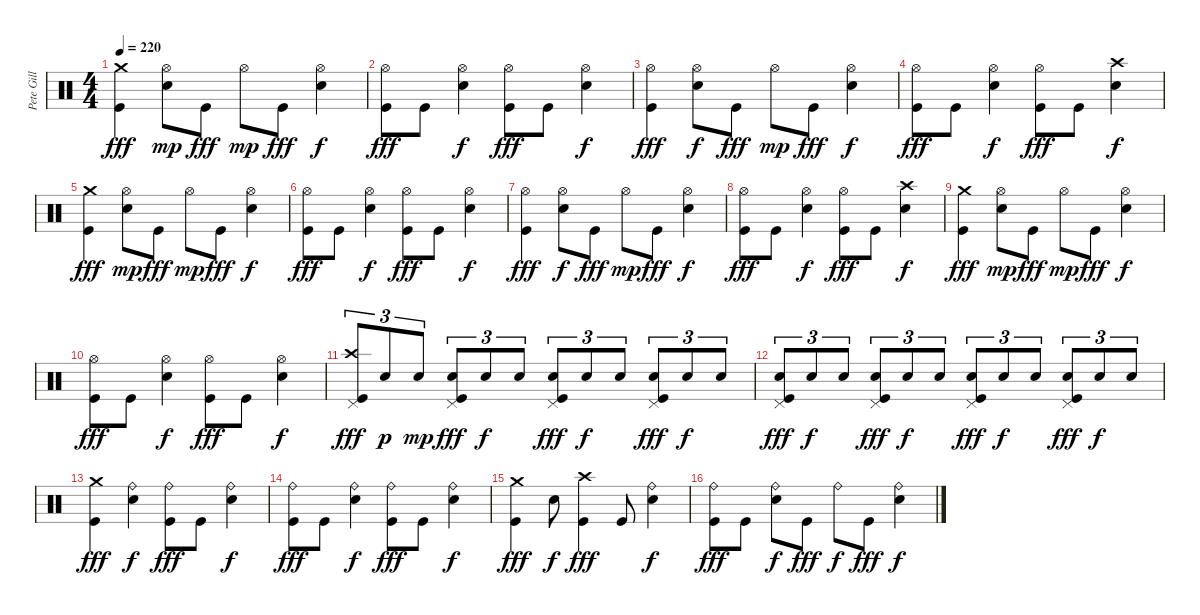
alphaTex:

\track ("Pete Gill" "Pete Gill") {instrument percussion}
\staff {score}
\articulation defaults
\ts (4 4)
\tempo 220
\clef neutral
\ks c
("Crash medium (hit)" "Kick (hit)").4{dy fff} ("Hi-Hat (open)" "Electric Snare (hit)").8{dy mp} "Kick (hit)".8{dy fff} "Hi-Hat (open)".8{dy mp} "Kick (hit)".8{dy fff} ("Hi-Hat (open)" "Electric Snare (hit)").4{dy f} |
("Hi-Hat (open)" "Kick (hit)").8{dy fff} "Kick (hit)".8 ("Hi-Hat (open)" "Electric Snare (hit)").4{dy f} ("Hi-Hat (open)" "Kick (hit)").8{dy fff} "Kick (hit)".8 ("Hi-Hat (open)" "Electric Snare (hit)").4{dy f} |
("Hi-Hat (open)" "Kick (hit)").4{dy fff} ("Hi-Hat (open)" "Electric Snare (hit)").8{dy f} "Kick (hit)".8{dy fff} "Hi-Hat (open)".8{dy mp} "Kick (hit)".8{dy fff} ("Hi-Hat (open)" "Electric Snare (hit)").4{dy f} |
("Hi-Hat (open)" "Kick (hit)").8{dy fff} "Kick (hit)".8 ("Hi-Hat (open)" "Electric Snare (hit)").4{dy f} ("Hi-Hat (open)" "Kick (hit)").8{dy fff} "Kick (hit)".8 ("Crash high (hit)" "Electric Snare (hit)").4{dy f} |
("Crash medium (hit)" "Kick (hit)").4{dy fff} ("Hi-Hat (open)" "Electric Snare (hit)").8{dy mp} "Kick (hit)".8{dy fff} "Hi-Hat (open)".8{dy mp} "Kick (hit)".8{dy fff} ("Hi-Hat (open)" "Electric Snare (hit)").4{dy f} |
("Hi-Hat (open)" "Kick (hit)").8{dy fff} "Kick (hit)".8 ("Hi-Hat (open)" "Electric Snare (hit)").4{dy f} ("Hi-Hat (open)" "Kick (hit)").8{dy fff} "Kick (hit)".8 ("Hi-Hat (open)" "Electric Snare (hit)").4{dy f} |
("Hi-Hat (open)" "Kick (hit)").4{dy fff} ("Hi-Hat (open)" "Electric Snare (hit)").8{dy f} "Kick (hit)".8{dy fff} "Hi-Hat (open)".8{dy mp} "Kick (hit)".8{dy fff} ("Hi-Hat (open)" "Electric Snare (hit)").4{dy f} |
("Hi-Hat (open)" "Kick (hit)").8{dy fff} "Kick (hit)".8 ("Hi-Hat (open)" "Electric Snare (hit)").4{dy f} ("Hi-Hat (open)" "Kick (hit)").8{dy fff} "Kick (hit)".8 ("Crash high (hit)" "Electric Snare (hit)").4{dy f} |
("Crash medium (hit)" "Kick (hit)").4{dy fff} ("Hi-Hat (open)" "Electric Snare (hit)").8{dy mp} "Kick (hit)".8{dy fff} "Hi-Hat (open)".8{dy mp} "Kick (hit)".8{dy fff} ("Hi-Hat (open)" "Electric Snare (hit)").4{dy f} |
("Hi-Hat (open)" "Kick (hit)").8{dy fff} "Kick (hit)".8 ("Hi-Hat (open)" "Electric Snare (hit)").4{dy f} ("Hi-Hat (open)" "Kick (hit)").8{dy fff} "Kick (hit)".8 ("Hi-Hat (open)" "Electric Snare (hit)").4{dy f} |
("Crash high (hit)" "Pedal Hi-Hat (hit)" "Kick (hit)").8{tu (3 2) dy fff} "Electric Snare (hit)".8{tu (3 2) dy p} "Electric Snare (hit)".8{tu (3 2) dy mp} ("Pedal Hi-Hat (hit)" "Electric Snare (hit)" "Kick (hit)").8{tu (3 2) dy fff} "Electric Snare (hit)".8{tu (3 2) dy f} "Electric Snare (hit)".8{tu (3 2)} ("Pedal Hi-Hat (hit)" "Electric Snare (hit)" "Kick (hit)").8{tu (3 2) dy fff} "Electric Snare (hit)".8{tu (3 2) dy f} "Electric Snare (hit)".8{tu (3 2)} ("Pedal Hi-Hat (hit)" "Electric Snare (hit)" "Kick (hit)").8{tu (3 2) dy fff} "Electric Snare (hit)".8{tu (3 2) dy f} "Electric Snare (hit)".8{tu (3 2)} |
("Pedal Hi-Hat (hit)" "Electric Snare (hit)" "Kick (hit)").8{tu (3 2) dy fff} "Electric Snare (hit)".8{tu (3 2) dy f} "Electric Snare (hit)".8{tu (3 2)} ("Pedal Hi-Hat (hit)" "Electric Snare (hit)" "Kick (hit)").8{tu (3 2) dy fff} "Electric Snare (hit)".8{tu (3 2) dy f} "Electric Snare (hit)".8{tu (3 2)} ("Pedal Hi-Hat (hit)" "Electric Snare (hit)" "Kick (hit)").8{tu (3 2) dy fff} "Electric Snare (hit)".8{tu (3 2) dy f} "Electric Snare (hit)".8{tu (3 2)} ("Pedal Hi-Hat (hit)" "Electric Snare (hit)" "Kick (hit)").8{tu (3 2) dy fff} "Electric Snare (hit)".8{tu (3 2) dy f} "Electric Snare (hit)".8{tu (3 2)} |
("Crash medium (hit)" "Kick (hit)").4{dy fff} ("Ride (bell)" "Electric Snare (hit)").4{dy f} ("Ride (bell)" "Kick (hit)").8{dy fff} "Kick (hit)".8 ("Ride (bell)" "Electric Snare (hit)").4{dy f} |
("Ride (bell)" "Kick (hit)").8{dy fff} "Kick (hit)".8 ("Ride (bell)" "Electric Snare (hit)").4{dy f} ("Ride (bell)" "Kick (hit)").8{dy fff} "Kick (hit)".8 ("Ride (bell)" "Electric Snare (hit)").4{dy f} |
("Crash medium (hit)" "Kick (hit)").4{dy fff} "Electric Snare (hit)".8{dy f} ("Crash high (hit)" "Kick (hit)").4{dy fff} "Kick (hit)".8 ("Ride (bell)" "Electric Snare (hit)").4{dy f} |
("Ride (bell)" "Kick (hit)").8{dy fff} "Kick (hit)".8 ("Ride (bell)" "Electric Snare (hit)").8{dy f} "Kick (hit)".8{dy fff} "Ride (bell)".8{dy f} "Kick (hit)".8{dy fff} ("Ride (bell)" "Electric Snare (hit)").4{dy f}
